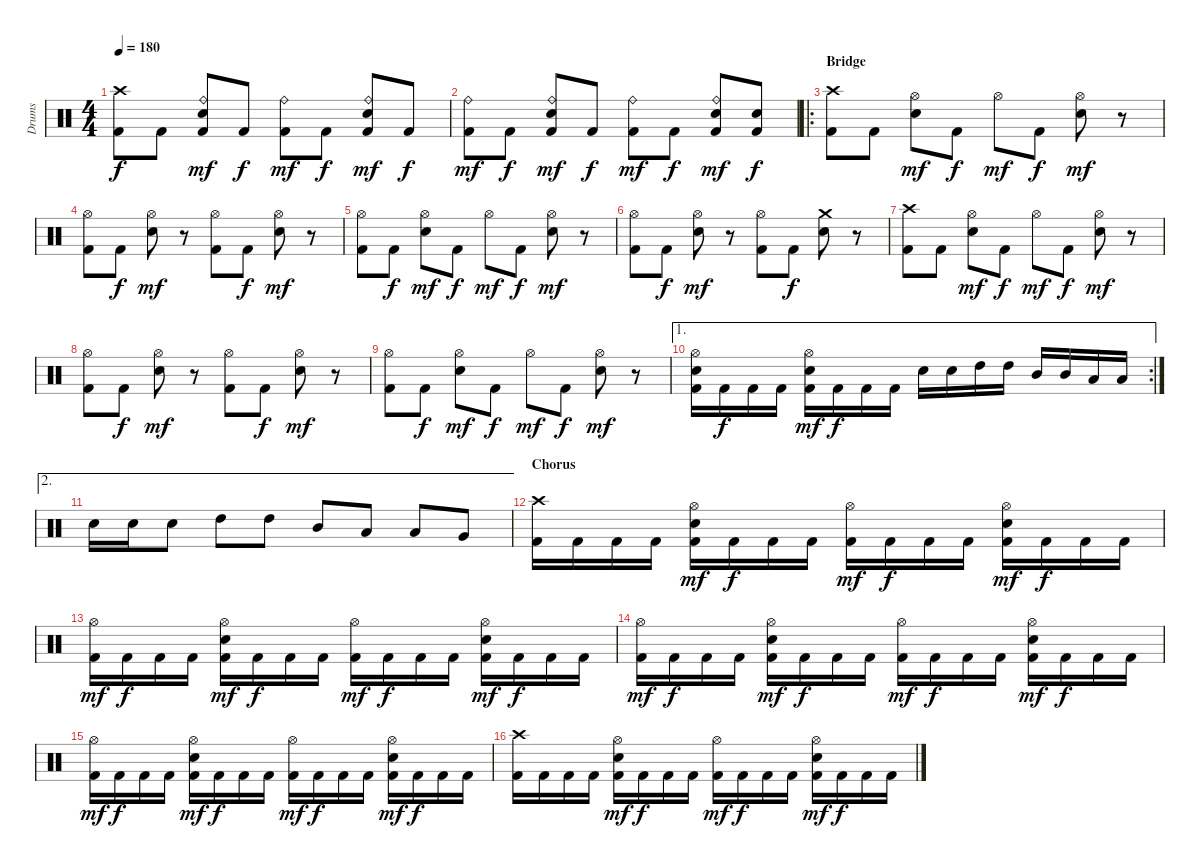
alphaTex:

\track ("Drums" "Drums") {instrument percussion}
\staff {score}
\articulation defaults
\ts (4 4)
\tempo 180
\clef neutral
\ks c
("Crash high (hit)" "Kick (hit) 2").8{dy f} "Kick (hit) 2".8 ("Ride (bell)" "Snare (hit) 2" "Kick (hit) 2").8{dy mf} "Kick (hit) 2".8{dy f} ("Ride (bell)" "Kick (hit) 2").8{dy mf} "Kick (hit) 2".8{dy f} ("Ride (bell)" "Snare (hit) 2" "Kick (hit) 2").8{dy mf} "Kick (hit) 2".8{dy f} |
("Ride (bell)" "Kick (hit) 2").8{dy mf} "Kick (hit) 2".8{dy f} ("Ride (bell)" "Snare (hit) 2" "Kick (hit) 2").8{dy mf} "Kick (hit) 2".8{dy f} ("Ride (bell)" "Kick (hit) 2").8{dy mf} "Kick (hit) 2".8{dy f} ("Ride (bell)" "Snare (hit) 2" "Kick (hit) 2").8{dy mf} ("Snare (hit) 2" "Kick (hit) 2").8{dy f} |
\ro
\section ("" "Bridge")
("Crash high (hit)" "Kick (hit) 2").8 "Kick (hit) 2".8 ("Hi-Hat (open)" "Snare (hit) 2").8{dy mf} "Kick (hit) 2".8{dy f} "Hi-Hat (open)".8{dy mf} "Kick (hit) 2".8{dy f} ("Hi-Hat (open)" "Snare (hit) 2").8{dy mf} r.8 |
("Hi-Hat (open)" "Kick (hit) 2").8 "Kick (hit) 2".8{dy f} ("Hi-Hat (open)" "Snare (hit) 2").8{dy mf} r.8 ("Hi-Hat (open)" "Kick (hit) 2").8 "Kick (hit) 2".8{dy f} ("Hi-Hat (open)" "Snare (hit) 2").8{dy mf} r.8 |
("Hi-Hat (open)" "Kick (hit) 2").8 "Kick (hit) 2".8{dy f} ("Hi-Hat (open)" "Snare (hit) 2").8{dy mf} "Kick (hit) 2".8{dy f} "Hi-Hat (open)".8{dy mf} "Kick (hit) 2".8{dy f} ("Hi-Hat (open)" "Snare (hit) 2").8{dy mf} r.8 |
("Hi-Hat (open)" "Kick (hit) 2").8 "Kick (hit) 2".8{dy f} ("Hi-Hat (open)" "Snare (hit) 2").8{dy mf} r.8 ("Hi-Hat (open)" "Kick (hit) 2").8 "Kick (hit) 2".8{dy f} ("Crash medium (hit)" "Snare (hit) 2").8 r.8 |
("Crash high (hit)" "Kick (hit) 2").8 "Kick (hit) 2".8 ("Hi-Hat (open)" "Snare (hit) 2").8{dy mf} "Kick (hit) 2".8{dy f} "Hi-Hat (open)".8{dy mf} "Kick (hit) 2".8{dy f} ("Hi-Hat (open)" "Snare (hit) 2").8{dy mf} r.8 |
("Hi-Hat (open)" "Kick (hit) 2").8 "Kick (hit) 2".8{dy f} ("Hi-Hat (open)" "Snare (hit) 2").8{dy mf} r.8 ("Hi-Hat (open)" "Kick (hit) 2").8 "Kick (hit) 2".8{dy f} ("Hi-Hat (open)" "Snare (hit) 2").8{dy mf} r.8 |
("Hi-Hat (open)" "Kick (hit) 2").8 "Kick (hit) 2".8{dy f} ("Hi-Hat (open)" "Snare (hit) 2").8{dy mf} "Kick (hit) 2".8{dy f} "Hi-Hat (open)".8{dy mf} "Kick (hit) 2".8{dy f} ("Hi-Hat (open)" "Snare (hit) 2").8{dy mf} r.8 |
\ae 1
\rc 2
("Hi-Hat (open)" "Snare (hit) 2" "Kick (hit) 2").16 "Kick (hit) 2".16{dy f} "Kick (hit) 2".16 "Kick (hit) 2".16 ("Hi-Hat (open)" "Snare (hit) 2" "Kick (hit) 2").16{dy mf} "Kick (hit) 2".16{dy f} "Kick (hit) 2".16 "Kick (hit) 2".16 "Snare (hit) 2".16 "Snare (hit) 2".16 "High Tom (hit)".16 "High Tom (hit)".16 "Mid Tom (hit)".16 "Mid Tom (hit)".16 "Low Tom (hit)".16 "Low Tom (hit)".16 |
\ae 2 "Snare (hit) 2".16 "Snare (hit) 2".16 "Snare (hit) 2".8 "High Tom (hit)".8 "High Tom (hit)".8 "Mid Tom (hit)".8 "Low Tom (hit)".8 "Low Tom (hit)".8 "Very Low Tom (hit)".8
|
\section ("" "Chorus")
("Crash high (hit)" "Kick (hit) 2").16 "Kick (hit) 2".16 "Kick (hit) 2".16 "Kick (hit) 2".16 ("Hi-Hat (open)" "Snare (hit) 2" "Kick (hit) 2").16{dy mf} "Kick (hit) 2".16{dy f} "Kick (hit) 2".16 "Kick (hit) 2".16 ("Hi-Hat (open)" "Kick (hit) 2").16{dy mf} "Kick (hit) 2".16{dy f} "Kick (hit) 2".16 "Kick (hit) 2".16 ("Hi-Hat (open)" "Snare (hit) 2" "Kick (hit) 2").16{dy mf} "Kick (hit) 2".16{dy f} "Kick (hit) 2".16 "Kick (hit) 2".16 |
("Hi-Hat (open)" "Kick (hit) 2").16{dy mf} "Kick (hit) 2".16{dy f} "Kick (hit) 2".16 "Kick (hit) 2".16 ("Hi-Hat (open)" "Snare (hit) 2" "Kick (hit) 2").16{dy mf} "Kick (hit) 2".16{dy f} "Kick (hit) 2".16 "Kick (hit) 2".16 ("Hi-Hat (open)" "Kick (hit) 2").16{dy mf} "Kick (hit) 2".16{dy f} "Kick (hit) 2".16 "Kick (hit) 2".16 ("Hi-Hat (open)" "Snare (hit) 2" "Kick (hit) 2").16{dy mf} "Kick (hit) 2".16{dy f} "Kick (hit) 2".16 "Kick (hit) 2".16 |
("Hi-Hat (open)" "Kick (hit) 2").16{dy mf} "Kick (hit) 2".16{dy f} "Kick (hit) 2".16 "Kick (hit) 2".16 ("Hi-Hat (open)" "Snare (hit) 2" "Kick (hit) 2").16{dy mf} "Kick (hit) 2".16{dy f} "Kick (hit) 2".16 "Kick (hit) 2".16 ("Hi-Hat (open)" "Kick (hit) 2").16{dy mf} "Kick (hit) 2".16{dy f} "Kick (hit) 2".16 "Kick (hit) 2".16 ("Hi-Hat (open)" "Snare (hit) 2" "Kick (hit) 2").16{dy mf} "Kick (hit) 2".16{dy f} "Kick (hit) 2".16 "Kick (hit) 2".16 |
("Hi-Hat (open)" "Kick (hit) 2").16{dy mf} "Kick (hit) 2".16{dy f} "Kick (hit) 2".16 "Kick (hit) 2".16 ("Hi-Hat (open)" "Snare (hit) 2" "Kick (hit) 2").16{dy mf} "Kick (hit) 2".16{dy f} "Kick (hit) 2".16 "Kick (hit) 2".16 ("Hi-Hat (open)" "Kick (hit) 2").16{dy mf} "Kick (hit) 2".16{dy f} "Kick (hit) 2".16 "Kick (hit) 2".16 ("Hi-Hat (open)" "Snare (hit) 2" "Kick (hit) 2").16{dy mf} "Kick (hit) 2".16{dy f} "Kick (hit) 2".16 "Kick (hit) 2".16 |
("Crash high (hit)" "Kick (hit) 2").16 "Kick (hit) 2".16 "Kick (hit) 2".16 "Kick (hit) 2".16 ("Hi-Hat (open)" "Snare (hit) 2" "Kick (hit) 2").16{dy mf} "Kick (hit) 2".16{dy f} "Kick (hit) 2".16 "Kick (hit) 2".16 ("Hi-Hat (open)" "Kick (hit) 2").16{dy mf} "Kick (hit) 2".16{dy f} "Kick (hit) 2".16 "Kick (hit) 2".16 ("Hi-Hat (open)" "Snare (hit) 2" "Kick (hit) 2").16{dy mf} "Kick (hit) 2".16{dy f} "Kick (hit) 2".16 "Kick (hit) 2".16
